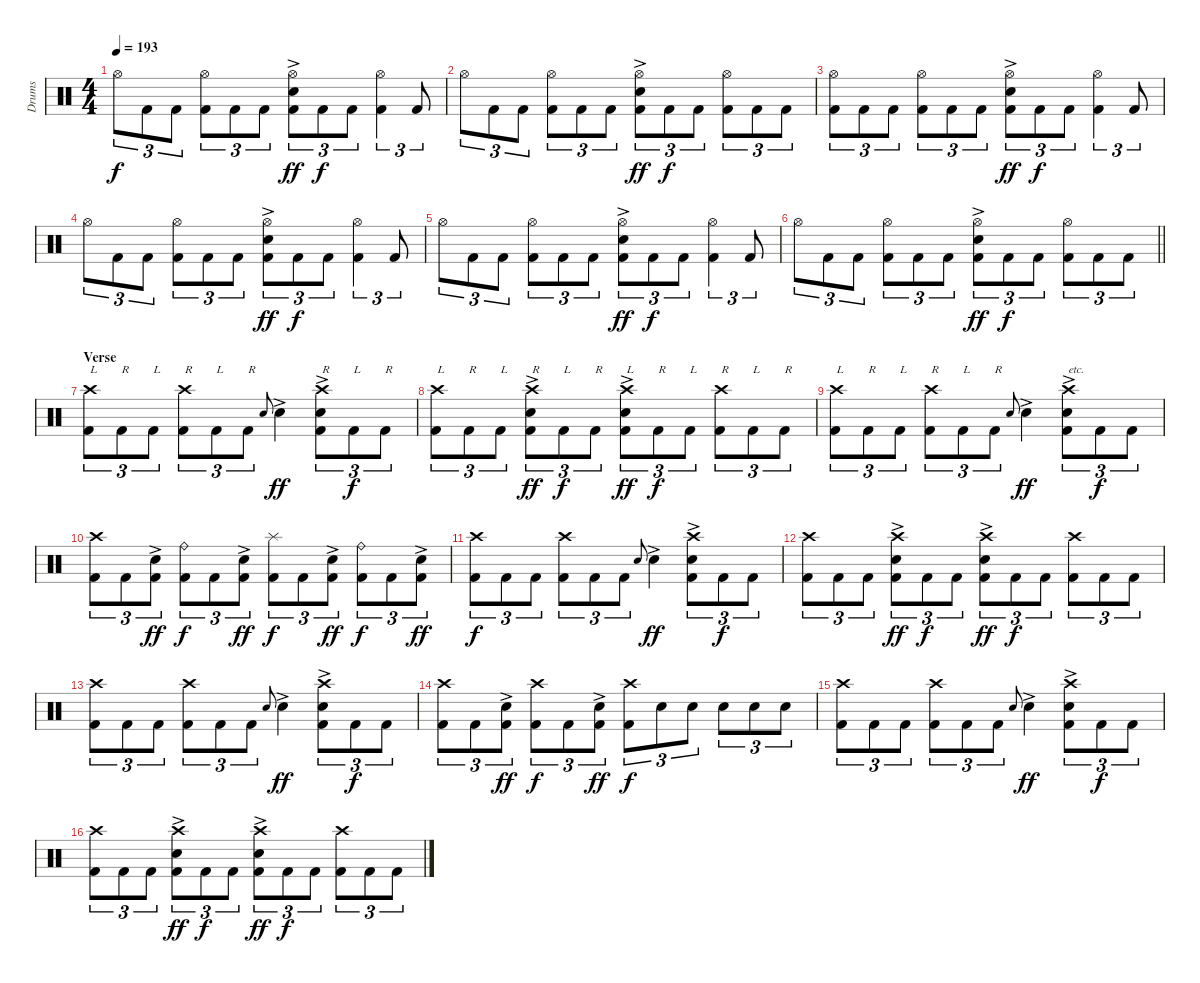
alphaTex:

\track ("Drums" "Drums") {instrument percussion}
\staff {score}
\articulation defaults
\ts (4 4)
\tempo 193
\clef neutral
\ks c "Hi-Hat (open)".8{tu (3 2) dy f} "Kick (hit) 2".8{tu (3 2)} "Kick (hit) 2".8{tu (3 2)}
("Hi-Hat (open)" "Kick (hit) 2").8{tu (3 2)} "Kick (hit) 2".8{tu (3 2)} "Kick (hit) 2".8{tu (3 2)} ("Hi-Hat (open)" "Electric Snare (hit)"{ac} "Kick (hit) 2").8{tu (3 2) dy ff} "Kick (hit) 2".8{tu (3 2) dy f} "Kick (hit) 2".8{tu (3 2)} ("Hi-Hat (open)" "Kick (hit) 2").4{tu (3 2)} "Kick (hit) 2".8{tu (3 2)} |
"Hi-Hat (open)".8{tu (3 2)} "Kick (hit) 2".8{tu (3 2)} "Kick (hit) 2".8{tu (3 2)} ("Hi-Hat (open)" "Kick (hit) 2").8{tu (3 2)} "Kick (hit) 2".8{tu (3 2)} "Kick (hit) 2".8{tu (3 2)} ("Hi-Hat (open)" "Electric Snare (hit)"{ac} "Kick (hit) 2").8{tu (3 2) dy ff} "Kick (hit) 2".8{tu (3 2) dy f} "Kick (hit) 2".8{tu (3 2)} ("Hi-Hat (open)" "Kick (hit) 2").8{tu (3 2)} "Kick (hit) 2".8{tu (3 2)} "Kick (hit) 2".8{tu (3 2)} |
("Hi-Hat (open)" "Kick (hit) 2").8{tu (3 2)} "Kick (hit) 2".8{tu (3 2)} "Kick (hit) 2".8{tu (3 2)} ("Hi-Hat (open)" "Kick (hit) 2").8{tu (3 2)} "Kick (hit) 2".8{tu (3 2)} "Kick (hit) 2".8{tu (3 2)} ("Hi-Hat (open)" "Electric Snare (hit)"{ac} "Kick (hit) 2").8{tu (3 2) dy ff} "Kick (hit) 2".8{tu (3 2) dy f} "Kick (hit) 2".8{tu (3 2)} ("Hi-Hat (open)" "Kick (hit) 2").4{tu (3 2)} "Kick (hit) 2".8{tu (3 2)} |
"Hi-Hat (open)".8{tu (3 2)} "Kick (hit) 2".8{tu (3 2)} "Kick (hit) 2".8{tu (3 2)} ("Hi-Hat (open)" "Kick (hit) 2").8{tu (3 2)} "Kick (hit) 2".8{tu (3 2)} "Kick (hit) 2".8{tu (3 2)} ("Hi-Hat (open)" "Electric Snare (hit)"{ac} "Kick (hit) 2").8{tu (3 2) dy ff} "Kick (hit) 2".8{tu (3 2) dy f} "Kick (hit) 2".8{tu (3 2)} ("Hi-Hat (open)" "Kick (hit) 2").4{tu (3 2)} "Kick (hit) 2".8{tu (3 2)} |
"Hi-Hat (open)".8{tu (3 2)} "Kick (hit) 2".8{tu (3 2)} "Kick (hit) 2".8{tu (3 2)} ("Hi-Hat (open)" "Kick (hit) 2").8{tu (3 2)} "Kick (hit) 2".8{tu (3 2)} "Kick (hit) 2".8{tu (3 2)} ("Hi-Hat (open)" "Electric Snare (hit)"{ac} "Kick (hit) 2").8{tu (3 2) dy ff} "Kick (hit) 2".8{tu (3 2) dy f} "Kick (hit) 2".8{tu (3 2)} ("Hi-Hat (open)" "Kick (hit) 2").4{tu (3 2)} "Kick (hit) 2".8{tu (3 2)} |
\barLineRight lightlight "Hi-Hat (open)".8{tu (3 2)} "Kick (hit) 2".8{tu (3 2)} "Kick (hit) 2".8{tu (3 2)}
("Hi-Hat (open)" "Kick (hit) 2").8{tu (3 2)} "Kick (hit) 2".8{tu (3 2)} "Kick (hit) 2".8{tu (3 2)} ("Hi-Hat (open)" "Electric Snare (hit)"{ac} "Kick (hit) 2").8{tu (3 2) dy ff} "Kick (hit) 2".8{tu (3 2) dy f} "Kick (hit) 2".8{tu (3 2)} ("Hi-Hat (open)" "Kick (hit) 2").8{tu (3 2)} "Kick (hit) 2".8{tu (3 2)} "Kick (hit) 2".8{tu (3 2)} |
\section ("" "Verse")
("Crash high (hit)" "Kick (hit) 2").8{tu (3 2) txt "L"} "Kick (hit) 2".8{tu (3 2) txt "R"} "Kick (hit) 2".8{tu (3 2) txt "L"} ("Crash high (hit)" "Kick (hit) 2").8{tu (3 2) txt "R"} "Kick (hit) 2".8{tu (3 2) txt "L"} "Kick (hit) 2".8{tu (3 2) txt "R"} "Electric Snare (hit)".8{gr onbeat} "Electric Snare (hit)"{ac}.4{dy ff} ("Crash high (hit)" "Electric Snare (hit)"{ac} "Kick (hit) 2").8{tu (3 2) txt "R"} "Kick (hit) 2".8{tu (3 2) txt "L" dy f} "Kick (hit) 2".8{tu (3 2) txt "R"} |
("Crash high (hit)" "Kick (hit) 2").8{tu (3 2) txt "L"} "Kick (hit) 2".8{tu (3 2) txt "R"} "Kick (hit) 2".8{tu (3 2) txt "L"} ("Crash high (hit)" "Electric Snare (hit)"{ac} "Kick (hit) 2").8{tu (3 2) txt "R" dy ff} "Kick (hit) 2".8{tu (3 2) txt "L" dy f} "Kick (hit) 2".8{tu (3 2) txt "R"} ("Crash high (hit)" "Electric Snare (hit)"{ac} "Kick (hit) 2").8{tu (3 2) txt "L" dy ff} "Kick (hit) 2".8{tu (3 2) txt "R" dy f} "Kick (hit) 2".8{tu (3 2) txt "L"} ("Crash high (hit)" "Kick (hit) 2").8{tu (3 2) txt "R"} "Kick (hit) 2".8{tu (3 2) txt "L"} "Kick (hit) 2".8{tu (3 2) txt "R"} |
("Crash high (hit)" "Kick (hit) 2").8{tu (3 2) txt "L"} "Kick (hit) 2".8{tu (3 2) txt "R"} "Kick (hit) 2".8{tu (3 2) txt "L"} ("Crash high (hit)" "Kick (hit) 2").8{tu (3 2) txt "R"} "Kick (hit) 2".8{tu (3 2) txt "L"} "Kick (hit) 2".8{tu (3 2) txt "R"} "Electric Snare (hit)".8{gr onbeat} "Electric Snare (hit)"{ac}.4{dy ff} ("Crash high (hit)" "Electric Snare (hit)"{ac} "Kick (hit) 2").8{tu (3 2) txt "etc."} "Kick (hit) 2".8{tu (3 2) dy f} "Kick (hit) 2".8{tu (3 2)} |
("Crash high (hit)" "Kick (hit) 2").8{tu (3 2)} "Kick (hit) 2".8{tu (3 2)} ("Electric Snare (hit)"{ac} "Kick (hit) 2").8{tu (3 2) dy ff} ("Ride (bell)" "Kick (hit) 2").8{tu (3 2) dy f} "Kick (hit) 2".8{tu (3 2)} ("Electric Snare (hit)"{ac} "Kick (hit) 2").8{tu (3 2) dy ff} ("Splash (hit)" "Kick (hit) 2").8{tu (3 2) dy f} "Kick (hit) 2".8{tu (3 2)} ("Electric Snare (hit)"{ac} "Kick (hit) 2").8{tu (3 2) dy ff} ("Ride (bell)" "Kick (hit) 2").8{tu (3 2) dy f} "Kick (hit) 2".8{tu (3 2)} ("Electric Snare (hit)"{ac} "Kick (hit) 2").8{tu (3 2) dy ff} |
("Crash high (hit)" "Kick (hit) 2").8{tu (3 2) dy f} "Kick (hit) 2".8{tu (3 2)} "Kick (hit) 2".8{tu (3 2)} ("Crash high (hit)" "Kick (hit) 2").8{tu (3 2)} "Kick (hit) 2".8{tu (3 2)} "Kick (hit) 2".8{tu (3 2)} "Electric Snare (hit)".8{gr onbeat} "Electric Snare (hit)"{ac}.4{dy ff} ("Crash high (hit)" "Electric Snare (hit)"{ac} "Kick (hit) 2").8{tu (3 2)} "Kick (hit) 2".8{tu (3 2) dy f} "Kick (hit) 2".8{tu (3 2)} |
("Crash high (hit)" "Kick (hit) 2").8{tu (3 2)} "Kick (hit) 2".8{tu (3 2)} "Kick (hit) 2".8{tu (3 2)} ("Crash high (hit)" "Electric Snare (hit)"{ac} "Kick (hit) 2").8{tu (3 2) dy ff} "Kick (hit) 2".8{tu (3 2) dy f} "Kick (hit) 2".8{tu (3 2)} ("Crash high (hit)" "Electric Snare (hit)"{ac} "Kick (hit) 2").8{tu (3 2) dy ff} "Kick (hit) 2".8{tu (3 2) dy f} "Kick (hit) 2".8{tu (3 2)} ("Crash high (hit)" "Kick (hit) 2").8{tu (3 2)} "Kick (hit) 2".8{tu (3 2)} "Kick (hit) 2".8{tu (3 2)} |
("Crash high (hit)" "Kick (hit) 2").8{tu (3 2)} "Kick (hit) 2".8{tu (3 2)} "Kick (hit) 2".8{tu (3 2)} ("Crash high (hit)" "Kick (hit) 2").8{tu (3 2)} "Kick (hit) 2".8{tu (3 2)} "Kick (hit) 2".8{tu (3 2)} "Electric Snare (hit)".8{gr onbeat} "Electric Snare (hit)"{ac}.4{dy ff} ("Crash high (hit)" "Electric Snare (hit)"{ac} "Kick (hit) 2").8{tu (3 2)} "Kick (hit) 2".8{tu (3 2) dy f} "Kick (hit) 2".8{tu (3 2)} |
("Crash high (hit)" "Kick (hit) 2").8{tu (3 2)} "Kick (hit) 2".8{tu (3 2)} ("Electric Snare (hit)"{ac} "Kick (hit) 2").8{tu (3 2) dy ff} ("Crash high (hit)" "Kick (hit) 2").8{tu (3 2) dy f} "Kick (hit) 2".8{tu (3 2)} ("Electric Snare (hit)"{ac} "Kick (hit) 2").8{tu (3 2) dy ff} ("Crash high (hit)" "Kick (hit) 2").8{tu (3 2) dy f} "Electric Snare (hit)".8{tu (3 2)} "Electric Snare (hit)".8{tu (3 2)} "Electric Snare (hit)".8{tu (3 2)} "Electric Snare (hit)".8{tu (3 2)} "Electric Snare (hit)".8{tu (3 2)} |
("Crash high (hit)" "Kick (hit) 2").8{tu (3 2)} "Kick (hit) 2".8{tu (3 2)} "Kick (hit) 2".8{tu (3 2)} ("Crash high (hit)" "Kick (hit) 2").8{tu (3 2)} "Kick (hit) 2".8{tu (3 2)} "Kick (hit) 2".8{tu (3 2)} "Electric Snare (hit)".8{gr onbeat} "Electric Snare (hit)"{ac}.4{dy ff} ("Crash high (hit)" "Electric Snare (hit)"{ac} "Kick (hit) 2").8{tu (3 2)} "Kick (hit) 2".8{tu (3 2) dy f} "Kick (hit) 2".8{tu (3 2)} |
("Crash high (hit)" "Kick (hit) 2").8{tu (3 2)} "Kick (hit) 2".8{tu (3 2)} "Kick (hit) 2".8{tu (3 2)} ("Crash high (hit)" "Electric Snare (hit)"{ac} "Kick (hit) 2").8{tu (3 2) dy ff} "Kick (hit) 2".8{tu (3 2) dy f} "Kick (hit) 2".8{tu (3 2)} ("Crash high (hit)" "Electric Snare (hit)"{ac} "Kick (hit) 2").8{tu (3 2) dy ff} "Kick (hit) 2".8{tu (3 2) dy f} "Kick (hit) 2".8{tu (3 2)} ("Crash high (hit)" "Kick (hit) 2").8{tu (3 2)} "Kick (hit) 2".8{tu (3 2)} "Kick (hit) 2".8{tu (3 2)}
